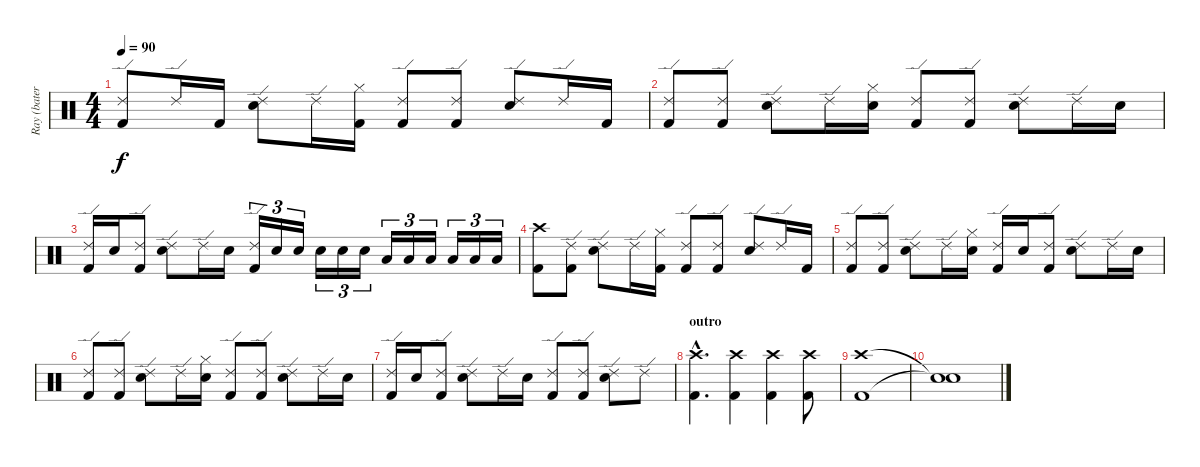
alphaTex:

\track ("Ray (batería)" "Ray (bater") {instrument percussion}
\staff {score}
\articulation defaults
\ts (4 4)
\tempo 90
\clef neutral
\ks c
("Ride (edge) 2" "Kick (hit) 2").8{dy f} "Ride (edge) 2".16 "Kick (hit) 2".16 ("Ride (edge) 2" "Snare (hit) 2").8 "Ride (edge) 2".16 ("Hi-Hat (closed)" "Kick (hit) 2").16 ("Ride (edge) 2" "Kick (hit) 2").8 ("Ride (edge) 2" "Kick (hit) 2").8 ("Ride (edge) 2" "Snare (hit) 2").8 "Ride (edge) 2".16 "Kick (hit) 2".16 |
("Ride (edge) 2" "Kick (hit) 2").8 ("Ride (edge) 2" "Kick (hit) 2").8 ("Ride (edge) 2" "Snare (hit) 2").8 "Ride (edge) 2".16 ("Hi-Hat (closed)" "Snare (hit) 2").16 ("Ride (edge) 2" "Kick (hit) 2").8 ("Ride (edge) 2" "Kick (hit) 2").8 ("Ride (edge) 2" "Snare (hit) 2").8 "Ride (edge) 2".16 "Snare (hit) 2".16 |
("Ride (edge) 2" "Kick (hit) 2").16 "Snare (hit) 2".16 ("Ride (edge) 2" "Kick (hit) 2").8 ("Ride (edge) 2" "Snare (hit) 2").8 "Ride (edge) 2".16 "Snare (hit) 2".16 ("Ride (edge) 2" "Kick (hit) 2").16{tu (3 2)} "Snare (hit) 2".16{tu (3 2)} "Snare (hit) 2".16{tu (3 2)} "Snare (hit) 2".16{tu (3 2)} "Snare (hit) 2".16{tu (3 2)} "Snare (hit) 2".16{tu (3 2)} "Low Tom (hit)".16{tu (3 2)} "Low Tom (hit)".16{tu (3 2)} "Low Tom (hit)".16{tu (3 2)} "Low Floor Tom (hit)".16{tu (3 2)} "Low Floor Tom (hit)".16{tu (3 2)} "Low Floor Tom (hit)".16{tu (3 2)} |
("Crash high (hit)" "Kick (hit) 2").8 ("Ride (edge) 2" "Kick (hit) 2").8 ("Ride (edge) 2" "Snare (hit) 2").8 "Ride (edge) 2".16 ("Hi-Hat (closed)" "Kick (hit) 2").16 ("Ride (edge) 2" "Kick (hit) 2").8 ("Ride (edge) 2" "Kick (hit) 2").8 ("Ride (edge) 2" "Snare (hit) 2").8 "Ride (edge) 2".16 "Kick (hit) 2".16 |
("Ride (edge) 2" "Kick (hit) 2").8 ("Ride (edge) 2" "Kick (hit) 2").8 ("Ride (edge) 2" "Snare (hit) 2").8 "Ride (edge) 2".16 ("Hi-Hat (closed)" "Snare (hit) 2").16 ("Ride (edge) 2" "Kick (hit) 2").16 "Snare (hit) 2".16 ("Ride (edge) 2" "Kick (hit) 2").8 ("Ride (edge) 2" "Snare (hit) 2").8 "Ride (edge) 2".16 "Snare (hit) 2".16 |
("Ride (edge) 2" "Kick (hit) 2").8 ("Ride (edge) 2" "Kick (hit) 2").8 ("Ride (edge) 2" "Snare (hit) 2").8 "Ride (edge) 2".16 ("Hi-Hat (closed)" "Snare (hit) 2").16 ("Ride (edge) 2" "Kick (hit) 2").8 ("Ride (edge) 2" "Kick (hit) 2").8 ("Ride (edge) 2" "Snare (hit) 2").8 "Ride (edge) 2".16 "Snare (hit) 2".16 |
("Ride (edge) 2" "Kick (hit) 2").16 "Snare (hit) 2".16 ("Ride (edge) 2" "Kick (hit) 2").8 ("Ride (edge) 2" "Snare (hit) 2").8 "Ride (edge) 2".16 "Snare (hit) 2".16 ("Ride (edge) 2" "Kick (hit) 2").8 ("Ride (edge) 2" "Kick (hit) 2").8 ("Ride (edge) 2" "Snare (hit) 2").8 "Ride (edge) 2".8 |
\section ("" "outro")
("Crash high (hit)"{hac} "Kick (hit) 2"{hac}).4{d} ("Crash high (hit)" "Kick (hit) 2").4 ("Crash high (hit)" "Kick (hit) 2").4 ("Crash high (hit)" "Kick (hit) 2").8 |
("Crash high (hit)" "Kick (hit) 2").1 |
("Snare (hit)"{t} "Snare (hit)"{t}).1
